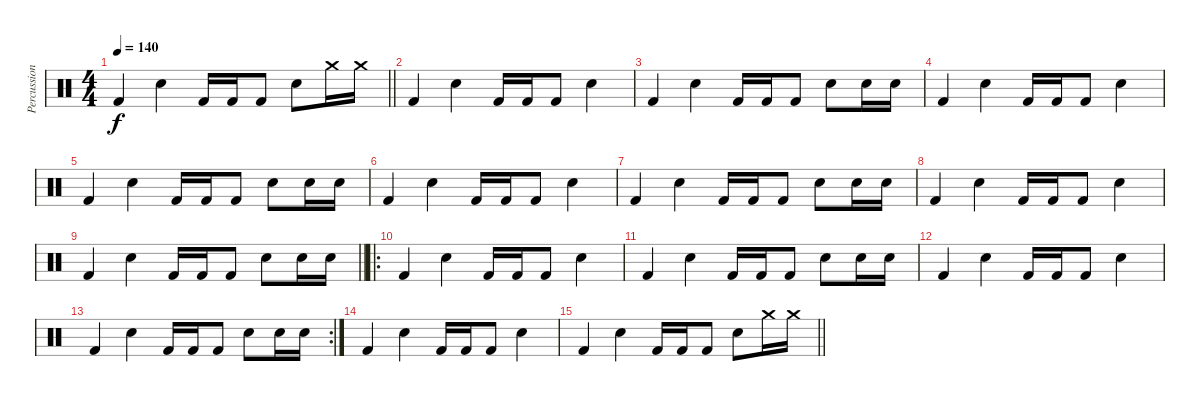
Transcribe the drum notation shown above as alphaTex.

\track ("Percussion" "Percussion") {instrument percussion}
\staff {score}
\articulation defaults
\ts (4 4)
\tempo 140
\clef neutral
\barLineRight lightlight
\ks c "Kick (hit) 2".4{dy f} "Electric Snare (hit)".4 "Kick (hit) 2".16 "Kick (hit) 2".16 "Kick (hit) 2".8 "Electric Snare (hit)".8 "Crash medium (hit)".16 "Crash medium (hit)".16
|
"Kick (hit) 2".4 "Electric Snare (hit)".4 "Kick (hit) 2".16 "Kick (hit) 2".16 "Kick (hit) 2".8 "Electric Snare (hit)".4 |
"Kick (hit) 2".4 "Electric Snare (hit)".4 "Kick (hit) 2".16 "Kick (hit) 2".16 "Kick (hit) 2".8 "Electric Snare (hit)".8 "Electric Snare (hit)".16 "Electric Snare (hit)".16 |
"Kick (hit) 2".4 "Electric Snare (hit)".4 "Kick (hit) 2".16 "Kick (hit) 2".16 "Kick (hit) 2".8 "Electric Snare (hit)".4 |
"Kick (hit) 2".4 "Electric Snare (hit)".4 "Kick (hit) 2".16 "Kick (hit) 2".16 "Kick (hit) 2".8 "Electric Snare (hit)".8 "Electric Snare (hit)".16 "Electric Snare (hit)".16 |
"Kick (hit) 2".4 "Electric Snare (hit)".4 "Kick (hit) 2".16 "Kick (hit) 2".16 "Kick (hit) 2".8 "Electric Snare (hit)".4 |
"Kick (hit) 2".4 "Electric Snare (hit)".4 "Kick (hit) 2".16 "Kick (hit) 2".16 "Kick (hit) 2".8 "Electric Snare (hit)".8 "Electric Snare (hit)".16 "Electric Snare (hit)".16 |
"Kick (hit) 2".4 "Electric Snare (hit)".4 "Kick (hit) 2".16 "Kick (hit) 2".16 "Kick (hit) 2".8 "Electric Snare (hit)".4 |
\barLineRight lightlight "Kick (hit) 2".4 "Electric Snare (hit)".4 "Kick (hit) 2".16 "Kick (hit) 2".16 "Kick (hit) 2".8 "Electric Snare (hit)".8 "Electric Snare (hit)".16 "Electric Snare (hit)".16
|
\ro "Kick (hit) 2".4 "Electric Snare (hit)".4 "Kick (hit) 2".16 "Kick (hit) 2".16 "Kick (hit) 2".8 "Electric Snare (hit)".4
|
"Kick (hit) 2".4 "Electric Snare (hit)".4 "Kick (hit) 2".16 "Kick (hit) 2".16 "Kick (hit) 2".8 "Electric Snare (hit)".8 "Electric Snare (hit)".16 "Electric Snare (hit)".16 |
"Kick (hit) 2".4 "Electric Snare (hit)".4 "Kick (hit) 2".16 "Kick (hit) 2".16 "Kick (hit) 2".8 "Electric Snare (hit)".4 |
\rc 2 "Kick (hit) 2".4 "Electric Snare (hit)".4 "Kick (hit) 2".16 "Kick (hit) 2".16 "Kick (hit) 2".8 "Electric Snare (hit)".8 "Electric Snare (hit)".16 "Electric Snare (hit)".16
|
"Kick (hit) 2".4 "Electric Snare (hit)".4 "Kick (hit) 2".16 "Kick (hit) 2".16 "Kick (hit) 2".8 "Electric Snare (hit)".4 |
\barLineRight lightlight "Kick (hit) 2".4 "Electric Snare (hit)".4 "Kick (hit) 2".16 "Kick (hit) 2".16 "Kick (hit) 2".8 "Electric Snare (hit)".8 "Crash medium (hit)".16 "Crash medium (hit)".16
